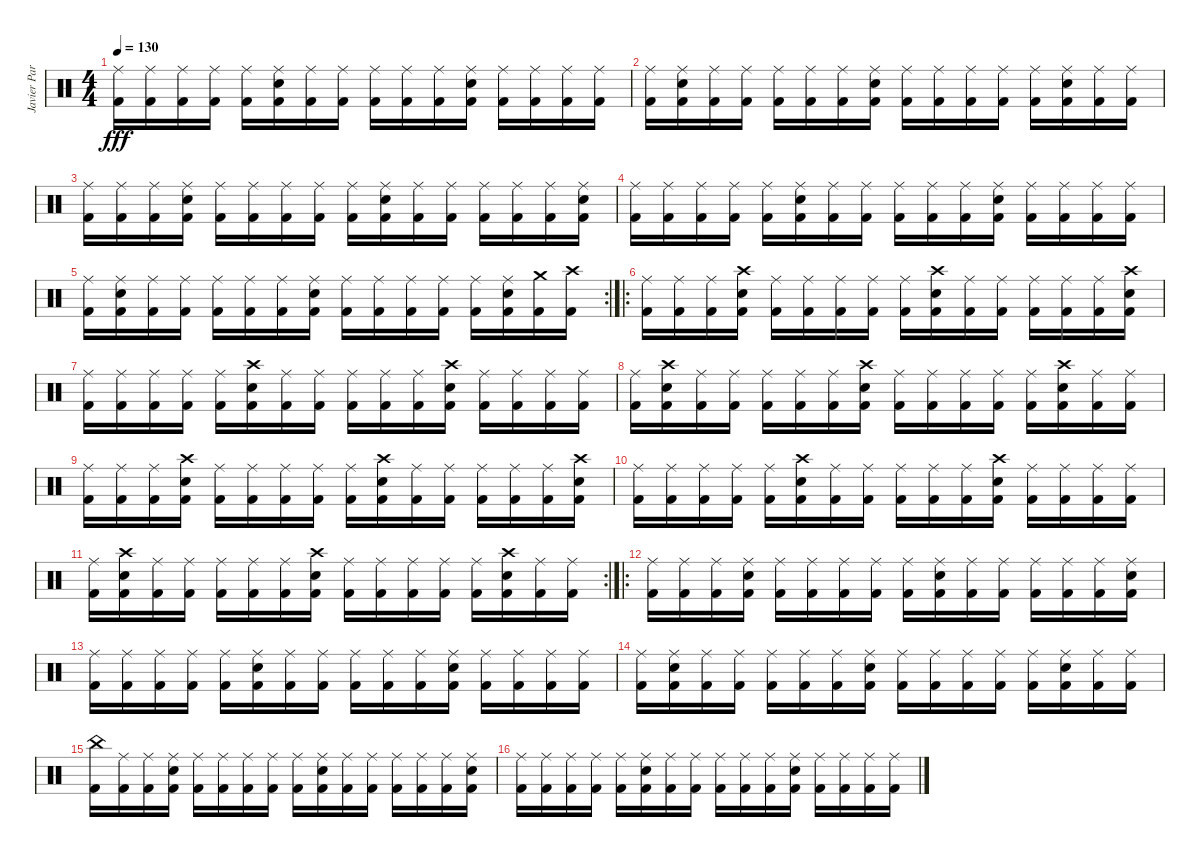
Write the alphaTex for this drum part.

\track ("Javier Partida" "Javier Par") {instrument percussion}
\staff {score}
\articulation defaults
\ts (4 4)
\tempo 130
\clef neutral
\ks c
("Ride (middle)" "Kick (hit) 2").16{dy fff} ("Ride (middle)" "Kick (hit) 2").16 ("Ride (middle)" "Kick (hit) 2").16 ("Ride (middle)" "Kick (hit) 2").16 ("Ride (middle)" "Kick (hit) 2").16 ("Ride (middle)" "Electric Snare (hit)" "Kick (hit) 2").16 ("Ride (middle)" "Kick (hit) 2").16 ("Ride (middle)" "Kick (hit) 2").16 ("Ride (middle)" "Kick (hit) 2").16 ("Ride (middle)" "Kick (hit) 2").16 ("Ride (middle)" "Kick (hit) 2").16 ("Ride (middle)" "Electric Snare (hit)" "Kick (hit) 2").16 ("Ride (middle)" "Kick (hit) 2").16 ("Ride (middle)" "Kick (hit) 2").16 ("Ride (middle)" "Kick (hit) 2").16 ("Ride (middle)" "Kick (hit) 2").16 |
("Ride (middle)" "Kick (hit) 2").16 ("Ride (middle)" "Electric Snare (hit)" "Kick (hit) 2").16 ("Ride (middle)" "Kick (hit) 2").16 ("Ride (middle)" "Kick (hit) 2").16 ("Ride (middle)" "Kick (hit) 2").16 ("Ride (middle)" "Kick (hit) 2").16 ("Ride (middle)" "Kick (hit) 2").16 ("Ride (middle)" "Electric Snare (hit)" "Kick (hit) 2").16 ("Ride (middle)" "Kick (hit) 2").16 ("Ride (middle)" "Kick (hit) 2").16 ("Ride (middle)" "Kick (hit) 2").16 ("Ride (middle)" "Kick (hit) 2").16 ("Ride (middle)" "Kick (hit) 2").16 ("Ride (middle)" "Electric Snare (hit)" "Kick (hit) 2").16 ("Ride (middle)" "Kick (hit) 2").16 ("Ride (middle)" "Kick (hit) 2").16 |
("Ride (middle)" "Kick (hit) 2").16 ("Ride (middle)" "Kick (hit) 2").16 ("Ride (middle)" "Kick (hit) 2").16 ("Ride (middle)" "Electric Snare (hit)" "Kick (hit) 2").16 ("Ride (middle)" "Kick (hit) 2").16 ("Ride (middle)" "Kick (hit) 2").16 ("Ride (middle)" "Kick (hit) 2").16 ("Ride (middle)" "Kick (hit) 2").16 ("Ride (middle)" "Kick (hit) 2").16 ("Ride (middle)" "Electric Snare (hit)" "Kick (hit) 2").16 ("Ride (middle)" "Kick (hit) 2").16 ("Ride (middle)" "Kick (hit) 2").16 ("Ride (middle)" "Kick (hit) 2").16 ("Ride (middle)" "Kick (hit) 2").16 ("Ride (middle)" "Kick (hit) 2").16 ("Ride (middle)" "Electric Snare (hit)" "Kick (hit) 2").16 |
("Ride (middle)" "Kick (hit) 2").16 ("Ride (middle)" "Kick (hit) 2").16 ("Ride (middle)" "Kick (hit) 2").16 ("Ride (middle)" "Kick (hit) 2").16 ("Ride (middle)" "Kick (hit) 2").16 ("Ride (middle)" "Electric Snare (hit)" "Kick (hit) 2").16 ("Ride (middle)" "Kick (hit) 2").16 ("Ride (middle)" "Kick (hit) 2").16 ("Ride (middle)" "Kick (hit) 2").16 ("Ride (middle)" "Kick (hit) 2").16 ("Ride (middle)" "Kick (hit) 2").16 ("Ride (middle)" "Electric Snare (hit)" "Kick (hit) 2").16 ("Ride (middle)" "Kick (hit) 2").16 ("Ride (middle)" "Kick (hit) 2").16 ("Ride (middle)" "Kick (hit) 2").16 ("Ride (middle)" "Kick (hit) 2").16 |
\rc 2
("Ride (middle)" "Kick (hit) 2").16 ("Ride (middle)" "Electric Snare (hit)" "Kick (hit) 2").16 ("Ride (middle)" "Kick (hit) 2").16 ("Ride (middle)" "Kick (hit) 2").16 ("Ride (middle)" "Kick (hit) 2").16 ("Ride (middle)" "Kick (hit) 2").16 ("Ride (middle)" "Kick (hit) 2").16 ("Ride (middle)" "Electric Snare (hit)" "Kick (hit) 2").16 ("Ride (middle)" "Kick (hit) 2").16 ("Ride (middle)" "Kick (hit) 2").16 ("Ride (middle)" "Kick (hit) 2").16 ("Ride (middle)" "Kick (hit) 2").16 ("Ride (middle)" "Kick (hit) 2").16 ("Ride (middle)" "Electric Snare (hit)" "Kick (hit) 2").16 ("Crash medium (hit)" "Kick (hit) 2").16 ("Crash high (hit)" "Kick (hit) 2").16 |
\ro
("Ride (middle)" "Kick (hit) 2").16 ("Ride (middle)" "Kick (hit) 2").16 ("Ride (middle)" "Kick (hit) 2").16 ("Crash high (hit)" "Electric Snare (hit)" "Kick (hit) 2").16 ("Ride (middle)" "Kick (hit) 2").16 ("Ride (middle)" "Kick (hit) 2").16 ("Ride (middle)" "Kick (hit) 2").16 ("Ride (middle)" "Kick (hit) 2").16 ("Ride (middle)" "Kick (hit) 2").16 ("Crash high (hit)" "Electric Snare (hit)" "Kick (hit) 2").16 ("Ride (middle)" "Kick (hit) 2").16 ("Ride (middle)" "Kick (hit) 2").16 ("Ride (middle)" "Kick (hit) 2").16 ("Ride (middle)" "Kick (hit) 2").16 ("Ride (middle)" "Kick (hit) 2").16 ("Crash high (hit)" "Electric Snare (hit)" "Kick (hit) 2").16 |
("Ride (middle)" "Kick (hit) 2").16 ("Ride (middle)" "Kick (hit) 2").16 ("Ride (middle)" "Kick (hit) 2").16 ("Ride (middle)" "Kick (hit) 2").16 ("Ride (middle)" "Kick (hit) 2").16 ("Crash high (hit)" "Electric Snare (hit)" "Kick (hit) 2").16 ("Ride (middle)" "Kick (hit) 2").16 ("Ride (middle)" "Kick (hit) 2").16 ("Ride (middle)" "Kick (hit) 2").16 ("Ride (middle)" "Kick (hit) 2").16 ("Ride (middle)" "Kick (hit) 2").16 ("Crash high (hit)" "Electric Snare (hit)" "Kick (hit) 2").16 ("Ride (middle)" "Kick (hit) 2").16 ("Ride (middle)" "Kick (hit) 2").16 ("Ride (middle)" "Kick (hit) 2").16 ("Ride (middle)" "Kick (hit) 2").16 |
("Ride (middle)" "Kick (hit) 2").16 ("Crash high (hit)" "Electric Snare (hit)" "Kick (hit) 2").16 ("Ride (middle)" "Kick (hit) 2").16 ("Ride (middle)" "Kick (hit) 2").16 ("Ride (middle)" "Kick (hit) 2").16 ("Ride (middle)" "Kick (hit) 2").16 ("Ride (middle)" "Kick (hit) 2").16 ("Crash high (hit)" "Electric Snare (hit)" "Kick (hit) 2").16 ("Ride (middle)" "Kick (hit) 2").16 ("Ride (middle)" "Kick (hit) 2").16 ("Ride (middle)" "Kick (hit) 2").16 ("Ride (middle)" "Kick (hit) 2").16 ("Ride (middle)" "Kick (hit) 2").16 ("Crash high (hit)" "Electric Snare (hit)" "Kick (hit) 2").16 ("Ride (middle)" "Kick (hit) 2").16 ("Ride (middle)" "Kick (hit) 2").16 |
("Ride (middle)" "Kick (hit) 2").16 ("Ride (middle)" "Kick (hit) 2").16 ("Ride (middle)" "Kick (hit) 2").16 ("Crash high (hit)" "Electric Snare (hit)" "Kick (hit) 2").16 ("Ride (middle)" "Kick (hit) 2").16 ("Ride (middle)" "Kick (hit) 2").16 ("Ride (middle)" "Kick (hit) 2").16 ("Ride (middle)" "Kick (hit) 2").16 ("Ride (middle)" "Kick (hit) 2").16 ("Crash high (hit)" "Electric Snare (hit)" "Kick (hit) 2").16 ("Ride (middle)" "Kick (hit) 2").16 ("Ride (middle)" "Kick (hit) 2").16 ("Ride (middle)" "Kick (hit) 2").16 ("Ride (middle)" "Kick (hit) 2").16 ("Ride (middle)" "Kick (hit) 2").16 ("Crash high (hit)" "Electric Snare (hit)" "Kick (hit) 2").16 |
("Ride (middle)" "Kick (hit) 2").16 ("Ride (middle)" "Kick (hit) 2").16 ("Ride (middle)" "Kick (hit) 2").16 ("Ride (middle)" "Kick (hit) 2").16 ("Ride (middle)" "Kick (hit) 2").16 ("Crash high (hit)" "Electric Snare (hit)" "Kick (hit) 2").16 ("Ride (middle)" "Kick (hit) 2").16 ("Ride (middle)" "Kick (hit) 2").16 ("Ride (middle)" "Kick (hit) 2").16 ("Ride (middle)" "Kick (hit) 2").16 ("Ride (middle)" "Kick (hit) 2").16 ("Crash high (hit)" "Electric Snare (hit)" "Kick (hit) 2").16 ("Ride (middle)" "Kick (hit) 2").16 ("Ride (middle)" "Kick (hit) 2").16 ("Ride (middle)" "Kick (hit) 2").16 ("Ride (middle)" "Kick (hit) 2").16 |
\rc 2
("Ride (middle)" "Kick (hit) 2").16 ("Crash high (hit)" "Electric Snare (hit)" "Kick (hit) 2").16 ("Ride (middle)" "Kick (hit) 2").16 ("Ride (middle)" "Kick (hit) 2").16 ("Ride (middle)" "Kick (hit) 2").16 ("Ride (middle)" "Kick (hit) 2").16 ("Ride (middle)" "Kick (hit) 2").16 ("Crash high (hit)" "Electric Snare (hit)" "Kick (hit) 2").16 ("Ride (middle)" "Kick (hit) 2").16 ("Ride (middle)" "Kick (hit) 2").16 ("Ride (middle)" "Kick (hit) 2").16 ("Ride (middle)" "Kick (hit) 2").16 ("Ride (middle)" "Kick (hit) 2").16 ("Crash high (hit)" "Electric Snare (hit)" "Kick (hit) 2").16 ("Ride (middle)" "Kick (hit) 2").16 ("Ride (middle)" "Kick (hit) 2").16 |
\ro
("Ride (middle)" "Kick (hit) 2").16 ("Ride (middle)" "Kick (hit) 2").16 ("Ride (middle)" "Kick (hit) 2").16 ("Ride (middle)" "Electric Snare (hit)" "Kick (hit) 2").16 ("Ride (middle)" "Kick (hit) 2").16 ("Ride (middle)" "Kick (hit) 2").16 ("Ride (middle)" "Kick (hit) 2").16 ("Ride (middle)" "Kick (hit) 2").16 ("Ride (middle)" "Kick (hit) 2").16 ("Ride (middle)" "Electric Snare (hit)" "Kick (hit) 2").16 ("Ride (middle)" "Kick (hit) 2").16 ("Ride (middle)" "Kick (hit) 2").16 ("Ride (middle)" "Kick (hit) 2").16 ("Ride (middle)" "Kick (hit) 2").16 ("Ride (middle)" "Kick (hit) 2").16 ("Ride (middle)" "Electric Snare (hit)" "Kick (hit) 2").16 |
("Ride (middle)" "Kick (hit) 2").16 ("Ride (middle)" "Kick (hit) 2").16 ("Ride (middle)" "Kick (hit) 2").16 ("Ride (middle)" "Kick (hit) 2").16 ("Ride (middle)" "Kick (hit) 2").16 ("Ride (middle)" "Electric Snare (hit)" "Kick (hit) 2").16 ("Ride (middle)" "Kick (hit) 2").16 ("Ride (middle)" "Kick (hit) 2").16 ("Ride (middle)" "Kick (hit) 2").16 ("Ride (middle)" "Kick (hit) 2").16 ("Ride (middle)" "Kick (hit) 2").16 ("Ride (middle)" "Electric Snare (hit)" "Kick (hit) 2").16 ("Ride (middle)" "Kick (hit) 2").16 ("Ride (middle)" "Kick (hit) 2").16 ("Ride (middle)" "Kick (hit) 2").16 ("Ride (middle)" "Kick (hit) 2").16 |
("Ride (middle)" "Kick (hit) 2").16 ("Ride (middle)" "Electric Snare (hit)" "Kick (hit) 2").16 ("Ride (middle)" "Kick (hit) 2").16 ("Ride (middle)" "Kick (hit) 2").16 ("Ride (middle)" "Kick (hit) 2").16 ("Ride (middle)" "Kick (hit) 2").16 ("Ride (middle)" "Kick (hit) 2").16 ("Ride (middle)" "Electric Snare (hit)" "Kick (hit) 2").16 ("Ride (middle)" "Kick (hit) 2").16 ("Ride (middle)" "Kick (hit) 2").16 ("Ride (middle)" "Kick (hit) 2").16 ("Ride (middle)" "Kick (hit) 2").16 ("Ride (middle)" "Kick (hit) 2").16 ("Ride (middle)" "Electric Snare (hit)" "Kick (hit) 2").16 ("Ride (middle)" "Kick (hit) 2").16 ("Ride (middle)" "Kick (hit) 2").16 |
("China (hit)" "Kick (hit) 2").16 ("Ride (middle)" "Kick (hit) 2").16 ("Ride (middle)" "Kick (hit) 2").16 ("Ride (middle)" "Electric Snare (hit)" "Kick (hit) 2").16 ("Ride (middle)" "Kick (hit) 2").16 ("Ride (middle)" "Kick (hit) 2").16 ("Ride (middle)" "Kick (hit) 2").16 ("Ride (middle)" "Kick (hit) 2").16 ("Ride (middle)" "Kick (hit) 2").16 ("Ride (middle)" "Electric Snare (hit)" "Kick (hit) 2").16 ("Ride (middle)" "Kick (hit) 2").16 ("Ride (middle)" "Kick (hit) 2").16 ("Ride (middle)" "Kick (hit) 2").16 ("Ride (middle)" "Kick (hit) 2").16 ("Ride (middle)" "Kick (hit) 2").16 ("Ride (middle)" "Electric Snare (hit)" "Kick (hit) 2").16 |
("Ride (middle)" "Kick (hit) 2").16 ("Ride (middle)" "Kick (hit) 2").16 ("Ride (middle)" "Kick (hit) 2").16 ("Ride (middle)" "Kick (hit) 2").16 ("Ride (middle)" "Kick (hit) 2").16 ("Ride (middle)" "Electric Snare (hit)" "Kick (hit) 2").16 ("Ride (middle)" "Kick (hit) 2").16 ("Ride (middle)" "Kick (hit) 2").16 ("Ride (middle)" "Kick (hit) 2").16 ("Ride (middle)" "Kick (hit) 2").16 ("Ride (middle)" "Kick (hit) 2").16 ("Ride (middle)" "Electric Snare (hit)" "Kick (hit) 2").16 ("Ride (middle)" "Kick (hit) 2").16 ("Ride (middle)" "Kick (hit) 2").16 ("Ride (middle)" "Kick (hit) 2").16 ("Ride (middle)" "Kick (hit) 2").16
